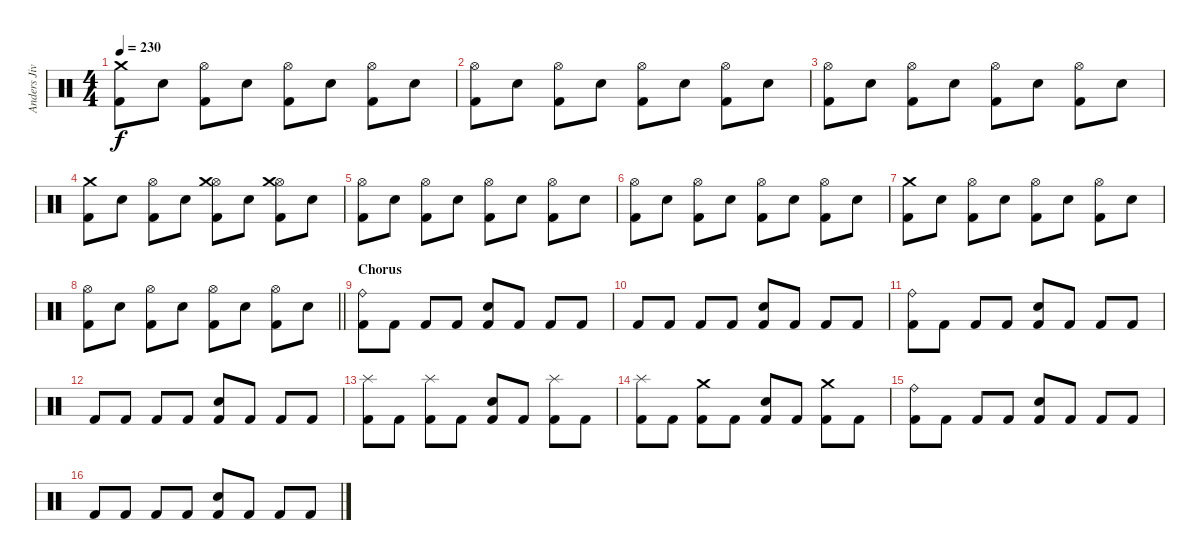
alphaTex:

\track ("Anders Jivarp" "Anders Jiv") {instrument percussion}
\staff {score}
\articulation defaults
\ts (4 4)
\tempo 230
\clef neutral
\ks c
("Kick (hit) 2" "Crash medium (hit)").8{dy f} "Electric Snare (hit)".8 ("Kick (hit) 2" "Hi-Hat (open)").8 "Electric Snare (hit)".8 ("Kick (hit) 2" "Hi-Hat (open)").8 "Electric Snare (hit)".8 ("Kick (hit) 2" "Hi-Hat (open)").8 "Electric Snare (hit)".8 |
("Kick (hit) 2" "Hi-Hat (open)").8 "Electric Snare (hit)".8 ("Kick (hit) 2" "Hi-Hat (open)").8 "Electric Snare (hit)".8 ("Kick (hit) 2" "Hi-Hat (open)").8 "Electric Snare (hit)".8 ("Kick (hit) 2" "Hi-Hat (open)").8 "Electric Snare (hit)".8 |
("Kick (hit) 2" "Hi-Hat (open)").8 "Electric Snare (hit)".8 ("Kick (hit) 2" "Hi-Hat (open)").8 "Electric Snare (hit)".8 ("Kick (hit) 2" "Hi-Hat (open)").8 "Electric Snare (hit)".8 ("Kick (hit) 2" "Hi-Hat (open)").8 "Electric Snare (hit)".8 |
("Kick (hit) 2" "Crash medium (hit)").8 "Electric Snare (hit)".8 ("Kick (hit) 2" "Hi-Hat (open)").8 "Electric Snare (hit)".8 ("Kick (hit) 2" "Hi-Hat (open)" "Crash medium (hit)").8 "Electric Snare (hit)".8 ("Kick (hit) 2" "Hi-Hat (open)" "Crash medium (hit)").8 "Electric Snare (hit)".8 |
("Kick (hit) 2" "Hi-Hat (open)").8 "Electric Snare (hit)".8 ("Kick (hit) 2" "Hi-Hat (open)").8 "Electric Snare (hit)".8 ("Kick (hit) 2" "Hi-Hat (open)").8 "Electric Snare (hit)".8 ("Kick (hit) 2" "Hi-Hat (open)").8 "Electric Snare (hit)".8 |
("Kick (hit) 2" "Hi-Hat (open)").8 "Electric Snare (hit)".8 ("Kick (hit) 2" "Hi-Hat (open)").8 "Electric Snare (hit)".8 ("Kick (hit) 2" "Hi-Hat (open)").8 "Electric Snare (hit)".8 ("Kick (hit) 2" "Hi-Hat (open)").8 "Electric Snare (hit)".8 |
("Kick (hit) 2" "Crash medium (hit)").8 "Electric Snare (hit)".8 ("Kick (hit) 2" "Hi-Hat (open)").8 "Electric Snare (hit)".8 ("Kick (hit) 2" "Hi-Hat (open)").8 "Electric Snare (hit)".8 ("Kick (hit) 2" "Hi-Hat (open)").8 "Electric Snare (hit)".8 |
\barLineRight lightlight
("Kick (hit) 2" "Hi-Hat (open)").8 "Electric Snare (hit)".8 ("Kick (hit) 2" "Hi-Hat (open)").8 "Electric Snare (hit)".8 ("Kick (hit) 2" "Hi-Hat (open)").8 "Electric Snare (hit)".8 ("Kick (hit) 2" "Hi-Hat (open)").8 "Electric Snare (hit)".8 |
\section ("" "Chorus")
("Kick (hit) 2" "Ride (bell)").8 "Kick (hit) 2".8 "Kick (hit) 2".8 "Kick (hit) 2".8 ("Kick (hit) 2" "Electric Snare (hit)").8 "Kick (hit) 2".8 "Kick (hit) 2".8 "Kick (hit) 2".8 |
"Kick (hit) 2".8 "Kick (hit) 2".8 "Kick (hit) 2".8 "Kick (hit) 2".8 ("Kick (hit) 2" "Electric Snare (hit)").8 "Kick (hit) 2".8 "Kick (hit) 2".8 "Kick (hit) 2".8 |
("Kick (hit) 2" "Ride (bell)").8 "Kick (hit) 2".8 "Kick (hit) 2".8 "Kick (hit) 2".8 ("Kick (hit) 2" "Electric Snare (hit)").8 "Kick (hit) 2".8 "Kick (hit) 2".8 "Kick (hit) 2".8 |
"Kick (hit) 2".8 "Kick (hit) 2".8 "Kick (hit) 2".8 "Kick (hit) 2".8 ("Kick (hit) 2" "Electric Snare (hit)").8 "Kick (hit) 2".8 "Kick (hit) 2".8 "Kick (hit) 2".8 |
("Kick (hit) 2" "Splash (hit)").8 "Kick (hit) 2".8 ("Kick (hit) 2" "Splash (hit)").8 "Kick (hit) 2".8 ("Kick (hit) 2" "Electric Snare (hit)").8 "Kick (hit) 2".8 ("Kick (hit) 2" "Splash (hit)").8 "Kick (hit) 2".8 |
("Kick (hit) 2" "Splash (hit)").8 "Kick (hit) 2".8 ("Kick (hit) 2" "Crash medium (hit)").8 "Kick (hit) 2".8 ("Kick (hit) 2" "Electric Snare (hit)").8 "Kick (hit) 2".8 ("Kick (hit) 2" "Crash medium (hit)").8 "Kick (hit) 2".8 |
("Kick (hit) 2" "Ride (bell)").8 "Kick (hit) 2".8 "Kick (hit) 2".8 "Kick (hit) 2".8 ("Kick (hit) 2" "Electric Snare (hit)").8 "Kick (hit) 2".8 "Kick (hit) 2".8 "Kick (hit) 2".8 |
"Kick (hit) 2".8 "Kick (hit) 2".8 "Kick (hit) 2".8 "Kick (hit) 2".8 ("Kick (hit) 2" "Electric Snare (hit)").8 "Kick (hit) 2".8 "Kick (hit) 2".8 "Kick (hit) 2".8
